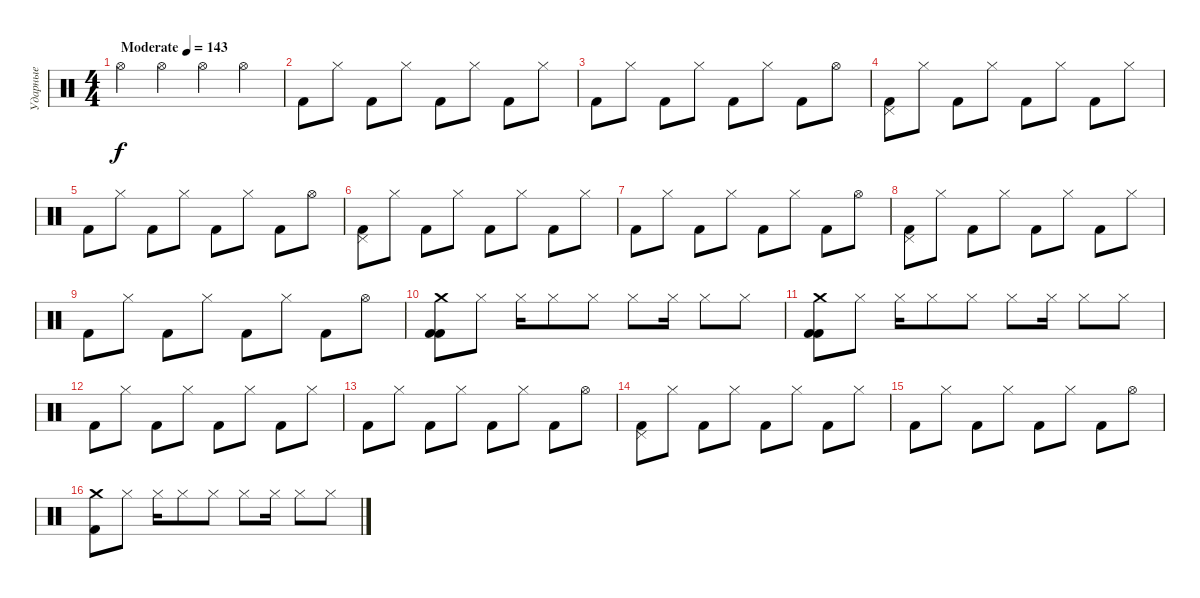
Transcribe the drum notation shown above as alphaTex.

\track ("Ударные" "Ударные") {instrument percussion}
\staff {score}
\articulation defaults
\ts (4 4)
\tempo (143 "Moderate")
\clef neutral
\ks c "Hi-Hat (open)".4{dy f} "Hi-Hat (open)".4 "Hi-Hat (open)".4 "Hi-Hat (open)".4
|
"Kick (hit) 2".8 "Hi-Hat (closed)".8 "Kick (hit) 2".8 "Hi-Hat (closed)".8 "Kick (hit) 2".8 "Hi-Hat (closed)".8 "Kick (hit) 2".8 "Hi-Hat (closed)".8 |
"Kick (hit) 2".8 "Hi-Hat (closed)".8 "Kick (hit) 2".8 "Hi-Hat (closed)".8 "Kick (hit) 2".8 "Hi-Hat (closed)".8 "Kick (hit) 2".8 "Hi-Hat (open)".8 |
("Kick (hit) 2" "Pedal Hi-Hat (hit)").8 "Hi-Hat (closed)".8 "Kick (hit) 2".8 "Hi-Hat (closed)".8 "Kick (hit) 2".8 "Hi-Hat (closed)".8 "Kick (hit) 2".8 "Hi-Hat (closed)".8 |
"Kick (hit) 2".8 "Hi-Hat (closed)".8 "Kick (hit) 2".8 "Hi-Hat (closed)".8 "Kick (hit) 2".8 "Hi-Hat (closed)".8 "Kick (hit) 2".8 "Hi-Hat (open)".8 |
("Kick (hit) 2" "Pedal Hi-Hat (hit)").8 "Hi-Hat (closed)".8 "Kick (hit) 2".8 "Hi-Hat (closed)".8 "Kick (hit) 2".8 "Hi-Hat (closed)".8 "Kick (hit) 2".8 "Hi-Hat (closed)".8 |
"Kick (hit) 2".8 "Hi-Hat (closed)".8 "Kick (hit) 2".8 "Hi-Hat (closed)".8 "Kick (hit) 2".8 "Hi-Hat (closed)".8 "Kick (hit) 2".8 "Hi-Hat (open)".8 |
("Kick (hit) 2" "Pedal Hi-Hat (hit)").8 "Hi-Hat (closed)".8 "Kick (hit) 2".8 "Hi-Hat (closed)".8 "Kick (hit) 2".8 "Hi-Hat (closed)".8 "Kick (hit) 2".8 "Hi-Hat (closed)".8 |
"Kick (hit) 2".8 "Hi-Hat (closed)".8 "Kick (hit) 2".8 "Hi-Hat (closed)".8 "Kick (hit) 2".8 "Hi-Hat (closed)".8 "Kick (hit) 2".8 "Hi-Hat (open)".8 |
("Kick (hit) 2" "Crash medium (hit)" "Kick (hit) 2").8 "Hi-Hat (closed)".8 "Hi-Hat (closed)".16 "Hi-Hat (closed)".8 "Hi-Hat (closed)".8 "Hi-Hat (closed)".8 "Hi-Hat (closed)".16 "Hi-Hat (closed)".8 "Hi-Hat (closed)".8 |
("Kick (hit) 2" "Kick (hit) 2" "Crash medium (hit)").8 "Hi-Hat (closed)".8 "Hi-Hat (closed)".16 "Hi-Hat (closed)".8 "Hi-Hat (closed)".8 "Hi-Hat (closed)".8 "Hi-Hat (closed)".16 "Hi-Hat (closed)".8 "Hi-Hat (closed)".8 |
"Kick (hit) 2".8 "Hi-Hat (closed)".8 "Kick (hit) 2".8 "Hi-Hat (closed)".8 "Kick (hit) 2".8 "Hi-Hat (closed)".8 "Kick (hit) 2".8 "Hi-Hat (closed)".8 |
"Kick (hit) 2".8 "Hi-Hat (closed)".8 "Kick (hit) 2".8 "Hi-Hat (closed)".8 "Kick (hit) 2".8 "Hi-Hat (closed)".8 "Kick (hit) 2".8 "Hi-Hat (open)".8 |
("Kick (hit) 2" "Pedal Hi-Hat (hit)").8 "Hi-Hat (closed)".8 "Kick (hit) 2".8 "Hi-Hat (closed)".8 "Kick (hit) 2".8 "Hi-Hat (closed)".8 "Kick (hit) 2".8 "Hi-Hat (closed)".8 |
"Kick (hit) 2".8 "Hi-Hat (closed)".8 "Kick (hit) 2".8 "Hi-Hat (closed)".8 "Kick (hit) 2".8 "Hi-Hat (closed)".8 "Kick (hit) 2".8 "Hi-Hat (open)".8 |
("Kick (hit) 2" "Crash medium (hit)").8 "Hi-Hat (closed)".8 "Hi-Hat (closed)".16 "Hi-Hat (closed)".8 "Hi-Hat (closed)".8 "Hi-Hat (closed)".8 "Hi-Hat (closed)".16 "Hi-Hat (closed)".8 "Hi-Hat (closed)".8
